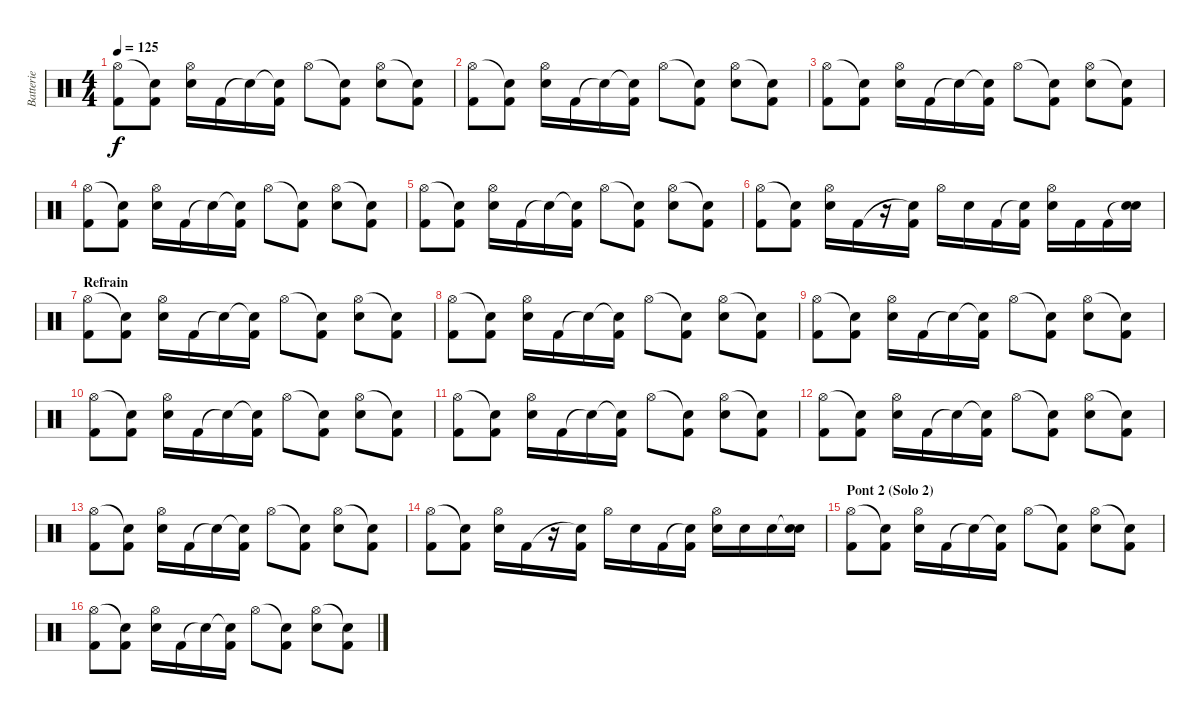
\track ("Batterie" "Batterie") {instrument percussion}
\staff {score}
\articulation defaults
\ts (4 4)
\tempo 125
\clef neutral
\ks c
("Hi-Hat (open)" "Kick (hit) 2").8{dy f} ("Snare (hit)"{t} "Kick (hit) 2").8 ("Hi-Hat (open)" "Electric Snare (hit)").16 "Kick (hit) 2".16 "Snare (hit)"{t}.16 ("Snare (hit)"{t} "Kick (hit) 2").16 "Hi-Hat (open)".8 ("Snare (hit)"{t} "Kick (hit) 2").8 ("Hi-Hat (open)" "Electric Snare (hit)").8 ("Snare (hit)"{t} "Kick (hit) 2").8 |
("Hi-Hat (open)" "Kick (hit) 2").8 ("Snare (hit)"{t} "Kick (hit) 2").8 ("Hi-Hat (open)" "Electric Snare (hit)").16 "Kick (hit) 2".16 "Snare (hit)"{t}.16 ("Snare (hit)"{t} "Kick (hit) 2").16 "Hi-Hat (open)".8 ("Snare (hit)"{t} "Kick (hit) 2").8 ("Hi-Hat (open)" "Electric Snare (hit)").8 ("Snare (hit)"{t} "Kick (hit) 2").8 |
("Hi-Hat (open)" "Kick (hit) 2").8 ("Snare (hit)"{t} "Kick (hit) 2").8 ("Hi-Hat (open)" "Electric Snare (hit)").16 "Kick (hit) 2".16 "Snare (hit)"{t}.16 ("Snare (hit)"{t} "Kick (hit) 2").16 "Hi-Hat (open)".8 ("Snare (hit)"{t} "Kick (hit) 2").8 ("Hi-Hat (open)" "Electric Snare (hit)").8 ("Snare (hit)"{t} "Kick (hit) 2").8 |
("Hi-Hat (open)" "Kick (hit) 2").8 ("Snare (hit)"{t} "Kick (hit) 2").8 ("Hi-Hat (open)" "Electric Snare (hit)").16 "Kick (hit) 2".16 "Snare (hit)"{t}.16 ("Snare (hit)"{t} "Kick (hit) 2").16 "Hi-Hat (open)".8 ("Snare (hit)"{t} "Kick (hit) 2").8 ("Hi-Hat (open)" "Electric Snare (hit)").8 ("Snare (hit)"{t} "Kick (hit) 2").8 |
("Hi-Hat (open)" "Kick (hit) 2").8 ("Snare (hit)"{t} "Kick (hit) 2").8 ("Hi-Hat (open)" "Electric Snare (hit)").16 "Kick (hit) 2".16 "Snare (hit)"{t}.16 ("Snare (hit)"{t} "Kick (hit) 2").16 "Hi-Hat (open)".8 ("Snare (hit)"{t} "Kick (hit) 2").8 ("Hi-Hat (open)" "Electric Snare (hit)").8 ("Snare (hit)"{t} "Kick (hit) 2").8 |
("Hi-Hat (open)" "Kick (hit) 2").8 ("Snare (hit)"{t} "Kick (hit) 2").8 ("Hi-Hat (open)" "Electric Snare (hit)").16 "Kick (hit) 2".16 r.16 ("Snare (hit)"{t} "Kick (hit) 2").16 "Hi-Hat (open)".16 "Electric Snare (hit)".16 "Kick (hit) 2".16 ("Snare (hit)"{t} "Kick (hit) 2").16 ("Hi-Hat (open)" "Electric Snare (hit)").16 "Kick (hit) 2".16 "Kick (hit) 2".16 ("Snare (hit)"{t} "Electric Snare (hit)").16 |
\section ("" "Refrain")
("Hi-Hat (open)" "Kick (hit) 2").8 ("Snare (hit)"{t} "Kick (hit) 2").8 ("Hi-Hat (open)" "Electric Snare (hit)").16 "Kick (hit) 2".16 "Snare (hit)"{t}.16 ("Snare (hit)"{t} "Kick (hit) 2").16 "Hi-Hat (open)".8 ("Snare (hit)"{t} "Kick (hit) 2").8 ("Hi-Hat (open)" "Electric Snare (hit)").8 ("Snare (hit)"{t} "Kick (hit) 2").8 |
("Hi-Hat (open)" "Kick (hit) 2").8 ("Snare (hit)"{t} "Kick (hit) 2").8 ("Hi-Hat (open)" "Electric Snare (hit)").16 "Kick (hit) 2".16 "Snare (hit)"{t}.16 ("Snare (hit)"{t} "Kick (hit) 2").16 "Hi-Hat (open)".8 ("Snare (hit)"{t} "Kick (hit) 2").8 ("Hi-Hat (open)" "Electric Snare (hit)").8 ("Snare (hit)"{t} "Kick (hit) 2").8 |
("Hi-Hat (open)" "Kick (hit) 2").8 ("Snare (hit)"{t} "Kick (hit) 2").8 ("Hi-Hat (open)" "Electric Snare (hit)").16 "Kick (hit) 2".16 "Snare (hit)"{t}.16 ("Snare (hit)"{t} "Kick (hit) 2").16 "Hi-Hat (open)".8 ("Snare (hit)"{t} "Kick (hit) 2").8 ("Hi-Hat (open)" "Electric Snare (hit)").8 ("Snare (hit)"{t} "Kick (hit) 2").8 |
("Hi-Hat (open)" "Kick (hit) 2").8 ("Snare (hit)"{t} "Kick (hit) 2").8 ("Hi-Hat (open)" "Electric Snare (hit)").16 "Kick (hit) 2".16 "Snare (hit)"{t}.16 ("Snare (hit)"{t} "Kick (hit) 2").16 "Hi-Hat (open)".8 ("Snare (hit)"{t} "Kick (hit) 2").8 ("Hi-Hat (open)" "Electric Snare (hit)").8 ("Snare (hit)"{t} "Kick (hit) 2").8 |
("Hi-Hat (open)" "Kick (hit) 2").8 ("Snare (hit)"{t} "Kick (hit) 2").8 ("Hi-Hat (open)" "Electric Snare (hit)").16 "Kick (hit) 2".16 "Snare (hit)"{t}.16 ("Snare (hit)"{t} "Kick (hit) 2").16 "Hi-Hat (open)".8 ("Snare (hit)"{t} "Kick (hit) 2").8 ("Hi-Hat (open)" "Electric Snare (hit)").8 ("Snare (hit)"{t} "Kick (hit) 2").8 |
("Hi-Hat (open)" "Kick (hit) 2").8 ("Snare (hit)"{t} "Kick (hit) 2").8 ("Hi-Hat (open)" "Electric Snare (hit)").16 "Kick (hit) 2".16 "Snare (hit)"{t}.16 ("Snare (hit)"{t} "Kick (hit) 2").16 "Hi-Hat (open)".8 ("Snare (hit)"{t} "Kick (hit) 2").8 ("Hi-Hat (open)" "Electric Snare (hit)").8 ("Snare (hit)"{t} "Kick (hit) 2").8 |
("Hi-Hat (open)" "Kick (hit) 2").8 ("Snare (hit)"{t} "Kick (hit) 2").8 ("Hi-Hat (open)" "Electric Snare (hit)").16 "Kick (hit) 2".16 "Snare (hit)"{t}.16 ("Snare (hit)"{t} "Kick (hit) 2").16 "Hi-Hat (open)".8 ("Snare (hit)"{t} "Kick (hit) 2").8 ("Hi-Hat (open)" "Electric Snare (hit)").8 ("Snare (hit)"{t} "Kick (hit) 2").8 |
("Hi-Hat (open)" "Kick (hit) 2").8 ("Snare (hit)"{t} "Kick (hit) 2").8 ("Hi-Hat (open)" "Electric Snare (hit)").16 "Kick (hit) 2".16 r.16 ("Snare (hit)"{t} "Kick (hit) 2").16 "Hi-Hat (open)".16 "Electric Snare (hit)".16 "Kick (hit) 2".16 ("Snare (hit)"{t} "Kick (hit) 2").16 ("Hi-Hat (open)" "Electric Snare (hit)").16 "Electric Snare (hit)".16 "Electric Snare (hit)".16 ("Snare (hit)"{t} "Electric Snare (hit)").16 |
\section ("" "Pont 2 (Solo 2)")
("Hi-Hat (open)" "Kick (hit) 2").8 ("Snare (hit)"{t} "Kick (hit) 2").8 ("Hi-Hat (open)" "Electric Snare (hit)").16 "Kick (hit) 2".16 "Snare (hit)"{t}.16 ("Snare (hit)"{t} "Kick (hit) 2").16 "Hi-Hat (open)".8 ("Snare (hit)"{t} "Kick (hit) 2").8 ("Hi-Hat (open)" "Electric Snare (hit)").8 ("Snare (hit)"{t} "Kick (hit) 2").8 |
("Hi-Hat (open)" "Kick (hit) 2").8 ("Snare (hit)"{t} "Kick (hit) 2").8 ("Hi-Hat (open)" "Electric Snare (hit)").16 "Kick (hit) 2".16 "Snare (hit)"{t}.16 ("Snare (hit)"{t} "Kick (hit) 2").16 "Hi-Hat (open)".8 ("Snare (hit)"{t} "Kick (hit) 2").8 ("Hi-Hat (open)" "Electric Snare (hit)").8 ("Snare (hit)"{t} "Kick (hit) 2").8
